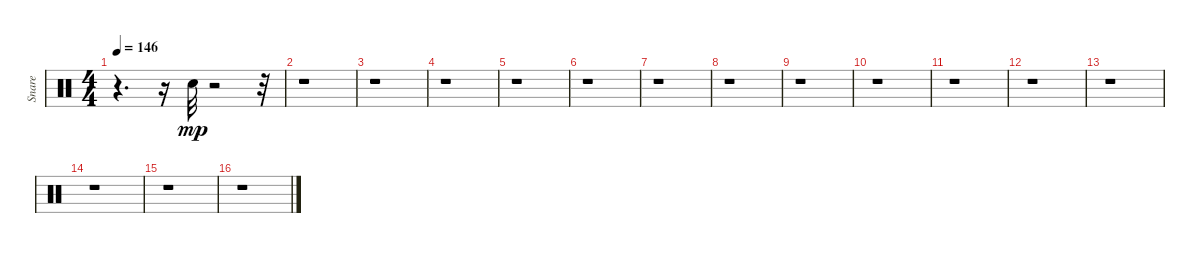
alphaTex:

\track ("Snare" "Snare") {instrument percussion}
\staff {score}
\articulation defaults
\ts (4 4)
\tempo 146
\clef neutral
\ks c
r.4{d dy mp} r.16 "Electric Snare (hit)".32 r.2 r.32 |
r.1 |
r.1 |
r.1 |
r.1 |
r.1 |
r.1 |
r.1 |
r.1 |
r.1 |
r.1 |
r.1 |
r.1 |
r.1 |
r.1 |
r.1
